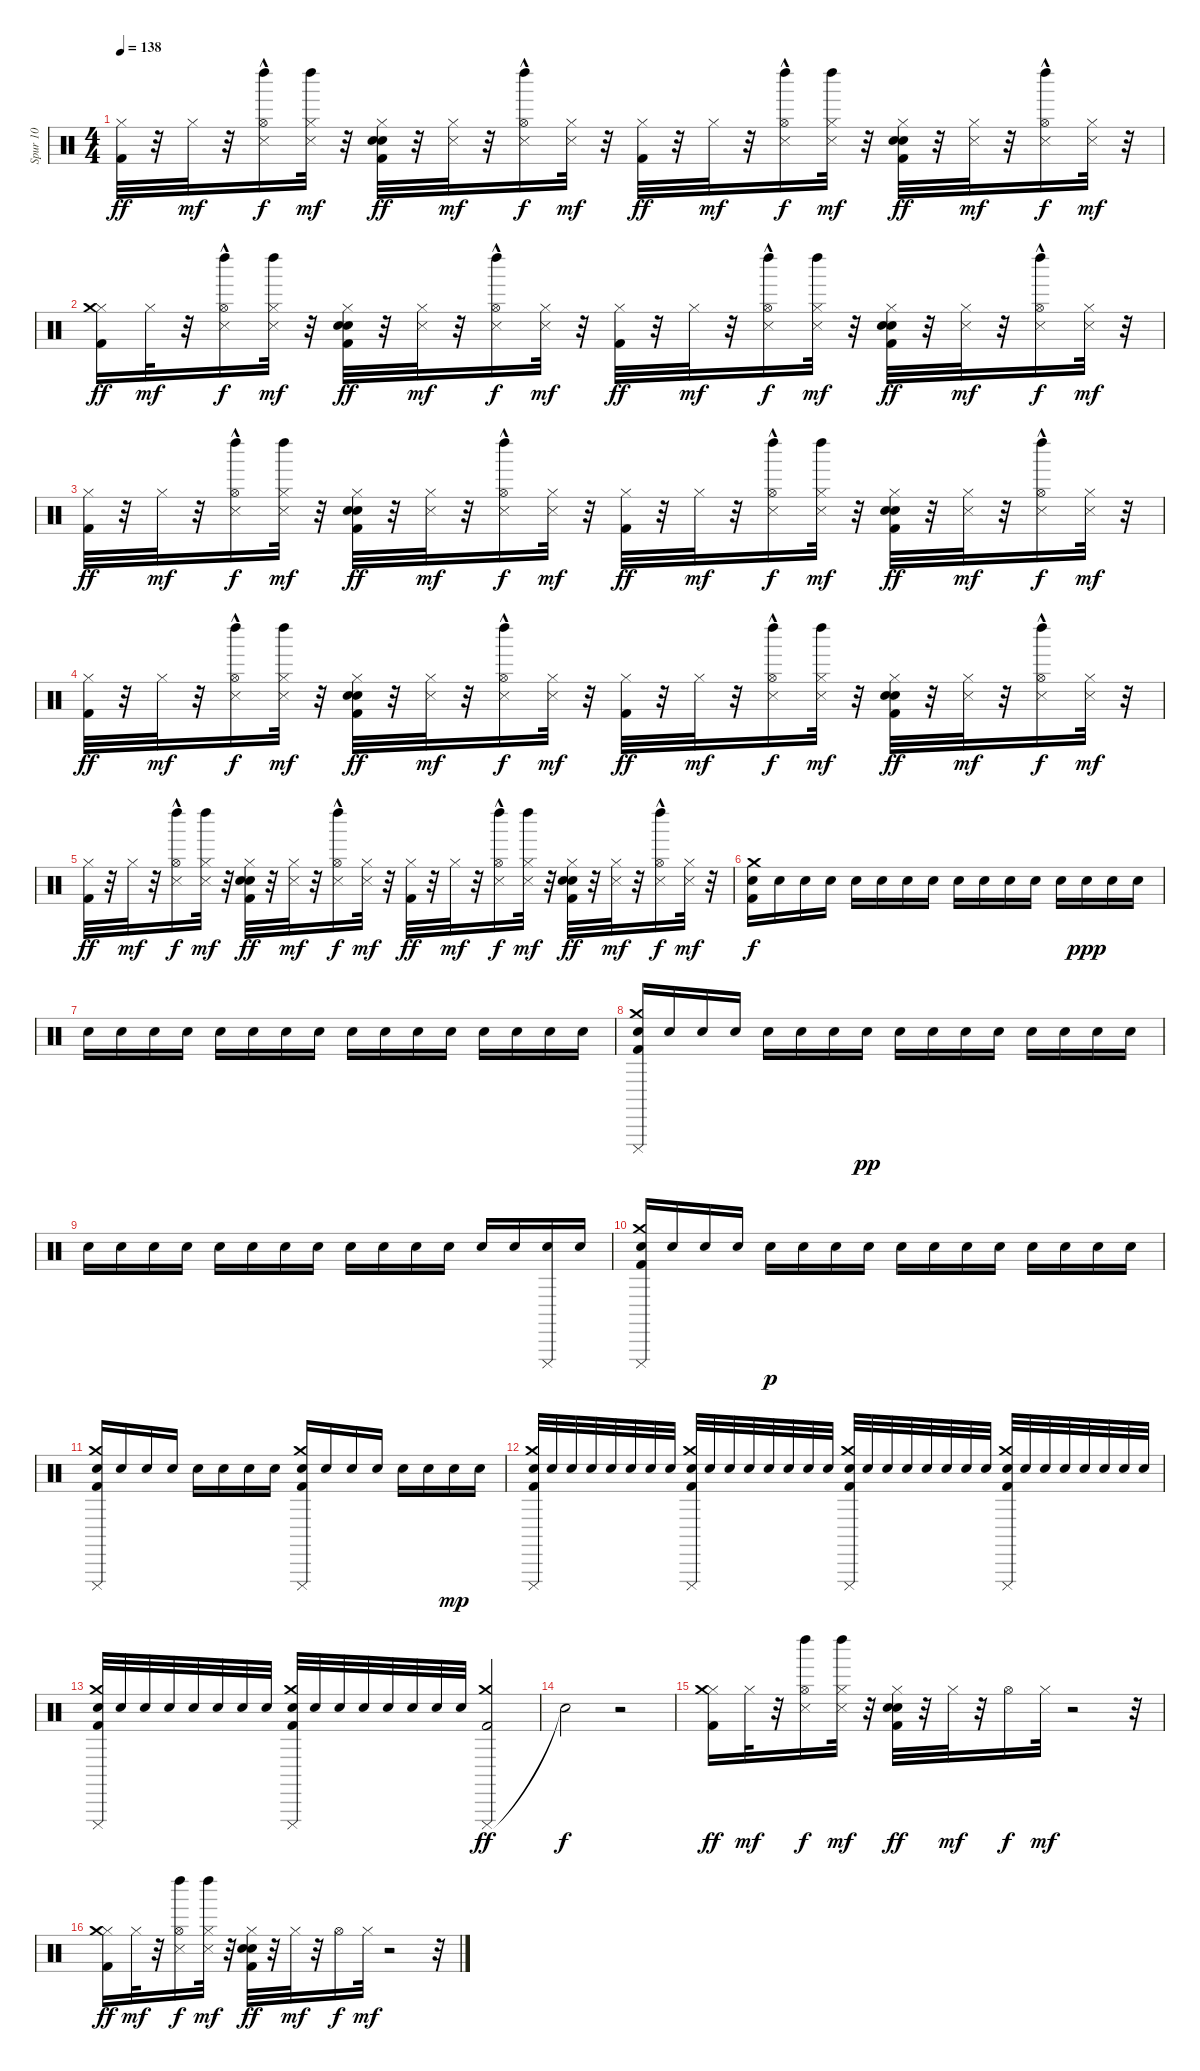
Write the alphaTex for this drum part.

\track ("Spur 10" "Spur 10") {instrument percussion}
\staff {score}
\articulation defaults
\ts (4 4)
\tempo 138
\clef neutral
\ks c
("Hi-Hat (closed)" "Kick (hit) 2").32{dy ff} r.32 "Hi-Hat (closed)".32{dy mf} r.32 ("Snare (side stick) 3" "Hi-Hat (open)"{hac} "Left Maraca (hit)").16{dy f} ("Hi-Hat (closed)" "Snare (side stick) 3" "Left Maraca (hit)").32{dy mf} r.32 ("Hand Clap (hit)" "Hi-Hat (closed)" "Kick (hit) 2" "Electric Snare (hit)").32{dy ff} r.32 ("Hi-Hat (closed)" "Snare (side stick) 3").32{dy mf} r.32 ("Snare (side stick) 3" "Hi-Hat (open)"{hac} "Left Maraca (hit)").16{dy f} ("Hi-Hat (closed)" "Snare (side stick) 3").32{dy mf} r.32 ("Hi-Hat (closed)" "Kick (hit) 2").32{dy ff} r.32 "Hi-Hat (closed)".32{dy mf} r.32 ("Snare (side stick) 3" "Hi-Hat (open)"{hac} "Left Maraca (hit)").16{dy f} ("Hi-Hat (closed)" "Snare (side stick) 3" "Left Maraca (hit)").32{dy mf} r.32 ("Hand Clap (hit)" "Hi-Hat (closed)" "Kick (hit) 2" "Electric Snare (hit)").32{dy ff} r.32 ("Hi-Hat (closed)" "Snare (side stick) 3").32{dy mf} r.32 ("Snare (side stick) 3" "Hi-Hat (open)"{hac} "Left Maraca (hit)").16{dy f} ("Hi-Hat (closed)" "Snare (side stick) 3").32{dy mf} r.32 |
("Hi-Hat (closed)" "Crash medium (hit)" "Kick (hit) 2").16{dy ff} "Hi-Hat (closed)".32{dy mf} r.32 ("Snare (side stick) 3" "Hi-Hat (open)"{hac} "Left Maraca (hit)").16{dy f} ("Hi-Hat (closed)" "Snare (side stick) 3" "Left Maraca (hit)").32{dy mf} r.32 ("Hand Clap (hit)" "Hi-Hat (closed)" "Kick (hit) 2" "Electric Snare (hit)").32{dy ff} r.32 ("Hi-Hat (closed)" "Snare (side stick) 3").32{dy mf} r.32 ("Snare (side stick) 3" "Hi-Hat (open)"{hac} "Left Maraca (hit)").16{dy f} ("Hi-Hat (closed)" "Snare (side stick) 3").32{dy mf} r.32 ("Hi-Hat (closed)" "Kick (hit) 2").32{dy ff} r.32 "Hi-Hat (closed)".32{dy mf} r.32 ("Snare (side stick) 3" "Hi-Hat (open)"{hac} "Left Maraca (hit)").16{dy f} ("Hi-Hat (closed)" "Snare (side stick) 3" "Left Maraca (hit)").32{dy mf} r.32 ("Hand Clap (hit)" "Hi-Hat (closed)" "Kick (hit) 2" "Electric Snare (hit)").32{dy ff} r.32 ("Hi-Hat (closed)" "Snare (side stick) 3").32{dy mf} r.32 ("Snare (side stick) 3" "Hi-Hat (open)"{hac} "Left Maraca (hit)").16{dy f} ("Hi-Hat (closed)" "Snare (side stick) 3").32{dy mf} r.32 |
("Hi-Hat (closed)" "Kick (hit) 2").32{dy ff} r.32 "Hi-Hat (closed)".32{dy mf} r.32 ("Snare (side stick) 3" "Hi-Hat (open)"{hac} "Left Maraca (hit)").16{dy f} ("Hi-Hat (closed)" "Snare (side stick) 3" "Left Maraca (hit)").32{dy mf} r.32 ("Hand Clap (hit)" "Hi-Hat (closed)" "Kick (hit) 2" "Electric Snare (hit)").32{dy ff} r.32 ("Hi-Hat (closed)" "Snare (side stick) 3").32{dy mf} r.32 ("Snare (side stick) 3" "Hi-Hat (open)"{hac} "Left Maraca (hit)").16{dy f} ("Hi-Hat (closed)" "Snare (side stick) 3").32{dy mf} r.32 ("Hi-Hat (closed)" "Kick (hit) 2").32{dy ff} r.32 "Hi-Hat (closed)".32{dy mf} r.32 ("Snare (side stick) 3" "Hi-Hat (open)"{hac} "Left Maraca (hit)").16{dy f} ("Hi-Hat (closed)" "Snare (side stick) 3" "Left Maraca (hit)").32{dy mf} r.32 ("Hand Clap (hit)" "Hi-Hat (closed)" "Kick (hit) 2" "Electric Snare (hit)").32{dy ff} r.32 ("Hi-Hat (closed)" "Snare (side stick) 3").32{dy mf} r.32 ("Snare (side stick) 3" "Hi-Hat (open)"{hac} "Left Maraca (hit)").16{dy f} ("Hi-Hat (closed)" "Snare (side stick) 3").32{dy mf} r.32 |
("Hi-Hat (closed)" "Kick (hit) 2").32{dy ff} r.32 "Hi-Hat (closed)".32{dy mf} r.32 ("Snare (side stick) 3" "Hi-Hat (open)"{hac} "Left Maraca (hit)").16{dy f} ("Hi-Hat (closed)" "Snare (side stick) 3" "Left Maraca (hit)").32{dy mf} r.32 ("Hand Clap (hit)" "Hi-Hat (closed)" "Kick (hit) 2" "Electric Snare (hit)").32{dy ff} r.32 ("Hi-Hat (closed)" "Snare (side stick) 3").32{dy mf} r.32 ("Snare (side stick) 3" "Hi-Hat (open)"{hac} "Left Maraca (hit)").16{dy f} ("Hi-Hat (closed)" "Snare (side stick) 3").32{dy mf} r.32 ("Hi-Hat (closed)" "Kick (hit) 2").32{dy ff} r.32 "Hi-Hat (closed)".32{dy mf} r.32 ("Snare (side stick) 3" "Hi-Hat (open)"{hac} "Left Maraca (hit)").16{dy f} ("Hi-Hat (closed)" "Snare (side stick) 3" "Left Maraca (hit)").32{dy mf} r.32 ("Hand Clap (hit)" "Hi-Hat (closed)" "Kick (hit) 2" "Electric Snare (hit)").32{dy ff} r.32 ("Hi-Hat (closed)" "Snare (side stick) 3").32{dy mf} r.32 ("Snare (side stick) 3" "Hi-Hat (open)"{hac} "Left Maraca (hit)").16{dy f} ("Hi-Hat (closed)" "Snare (side stick) 3").32{dy mf} r.32 |
("Hi-Hat (closed)" "Kick (hit) 2").32{dy ff} r.32 "Hi-Hat (closed)".32{dy mf} r.32 ("Snare (side stick) 3" "Hi-Hat (open)"{hac} "Left Maraca (hit)").16{dy f} ("Hi-Hat (closed)" "Snare (side stick) 3" "Left Maraca (hit)").32{dy mf} r.32 ("Hand Clap (hit)" "Hi-Hat (closed)" "Kick (hit) 2" "Electric Snare (hit)").32{dy ff} r.32 ("Hi-Hat (closed)" "Snare (side stick) 3").32{dy mf} r.32 ("Snare (side stick) 3" "Hi-Hat (open)"{hac} "Left Maraca (hit)").16{dy f} ("Hi-Hat (closed)" "Snare (side stick) 3").32{dy mf} r.32 ("Hi-Hat (closed)" "Kick (hit) 2").32{dy ff} r.32 "Hi-Hat (closed)".32{dy mf} r.32 ("Snare (side stick) 3" "Hi-Hat (open)"{hac} "Left Maraca (hit)").16{dy f} ("Hi-Hat (closed)" "Snare (side stick) 3" "Left Maraca (hit)").32{dy mf} r.32 ("Hand Clap (hit)" "Hi-Hat (closed)" "Kick (hit) 2" "Electric Snare (hit)").32{dy ff} r.32 ("Hi-Hat (closed)" "Snare (side stick) 3").32{dy mf} r.32 ("Snare (side stick) 3" "Hi-Hat (open)"{hac} "Left Maraca (hit)").16{dy f} ("Hi-Hat (closed)" "Snare (side stick) 3").32{dy mf} r.32 |
("Crash medium (hit)" "Kick (hit) 2" "Electric Snare (hit)").16{dy f} "Electric Snare (hit)".16 "Electric Snare (hit)".16 "Electric Snare (hit)".16 "Electric Snare (hit)".16 "Electric Snare (hit)".16 "Electric Snare (hit)".16 "Electric Snare (hit)".16 "Electric Snare (hit)".16 "Electric Snare (hit)".16 "Electric Snare (hit)".16 "Electric Snare (hit)".16 "Electric Snare (hit)".16 "Electric Snare (hit)".16{dy ppp} "Electric Snare (hit)".16 "Electric Snare (hit)".16 |
"Electric Snare (hit)".16 "Electric Snare (hit)".16 "Electric Snare (hit)".16 "Electric Snare (hit)".16 "Electric Snare (hit)".16 "Electric Snare (hit)".16 "Electric Snare (hit)".16 "Electric Snare (hit)".16 "Electric Snare (hit)".16 "Electric Snare (hit)".16 "Electric Snare (hit)".16 "Electric Snare (hit)".16 "Electric Snare (hit)".16 "Electric Snare (hit)".16 "Electric Snare (hit)".16 "Electric Snare (hit)".16 |
("Cuica (mute)" "Crash medium (hit)" "Kick (hit) 2" "Electric Snare (hit)").16 "Electric Snare (hit)".16 "Electric Snare (hit)".16 "Electric Snare (hit)".16 "Electric Snare (hit)".16 "Electric Snare (hit)".16 "Electric Snare (hit)".16 "Electric Snare (hit)".16{dy pp} "Electric Snare (hit)".16 "Electric Snare (hit)".16 "Electric Snare (hit)".16 "Electric Snare (hit)".16 "Electric Snare (hit)".16 "Electric Snare (hit)".16 "Electric Snare (hit)".16 "Electric Snare (hit)".16 |
"Electric Snare (hit)".16 "Electric Snare (hit)".16 "Electric Snare (hit)".16 "Electric Snare (hit)".16 "Electric Snare (hit)".16 "Electric Snare (hit)".16 "Electric Snare (hit)".16 "Electric Snare (hit)".16 "Electric Snare (hit)".16 "Electric Snare (hit)".16 "Electric Snare (hit)".16 "Electric Snare (hit)".16 "Electric Snare (hit)".16 "Electric Snare (hit)".16 ("Cuica (mute)" "Electric Snare (hit)").16 "Electric Snare (hit)".16 |
("Cuica (mute)" "Crash medium (hit)" "Kick (hit) 2" "Electric Snare (hit)").16 "Electric Snare (hit)".16 "Electric Snare (hit)".16 "Electric Snare (hit)".16 "Electric Snare (hit)".16{dy p} "Electric Snare (hit)".16 "Electric Snare (hit)".16 "Electric Snare (hit)".16 "Electric Snare (hit)".16 "Electric Snare (hit)".16 "Electric Snare (hit)".16 "Electric Snare (hit)".16 "Electric Snare (hit)".16 "Electric Snare (hit)".16 "Electric Snare (hit)".16 "Electric Snare (hit)".16 |
("Cuica (mute)" "Crash medium (hit)" "Kick (hit) 2" "Electric Snare (hit)").16 "Electric Snare (hit)".16 "Electric Snare (hit)".16 "Electric Snare (hit)".16 "Electric Snare (hit)".16 "Electric Snare (hit)".16 "Electric Snare (hit)".16 "Electric Snare (hit)".16 ("Cuica (mute)" "Crash medium (hit)" "Kick (hit) 2" "Electric Snare (hit)").16 "Electric Snare (hit)".16 "Electric Snare (hit)".16 "Electric Snare (hit)".16 "Electric Snare (hit)".16 "Electric Snare (hit)".16 "Electric Snare (hit)".16{dy mp} "Electric Snare (hit)".16 |
("Cuica (mute)" "Crash medium (hit)" "Kick (hit) 2" "Electric Snare (hit)").32 "Electric Snare (hit)".32 "Electric Snare (hit)".32 "Electric Snare (hit)".32 "Electric Snare (hit)".32 "Electric Snare (hit)".32 "Electric Snare (hit)".32 "Electric Snare (hit)".32 ("Cuica (mute)" "Crash medium (hit)" "Kick (hit) 2" "Electric Snare (hit)").32 "Electric Snare (hit)".32 "Electric Snare (hit)".32 "Electric Snare (hit)".32 "Electric Snare (hit)".32 "Electric Snare (hit)".32 "Electric Snare (hit)".32 "Electric Snare (hit)".32 ("Cuica (mute)" "Crash medium (hit)" "Kick (hit) 2" "Electric Snare (hit)").32 "Electric Snare (hit)".32 "Electric Snare (hit)".32 "Electric Snare (hit)".32 "Electric Snare (hit)".32 "Electric Snare (hit)".32 "Electric Snare (hit)".32 "Electric Snare (hit)".32 ("Cuica (mute)" "Crash medium (hit)" "Kick (hit) 2" "Electric Snare (hit)").32 "Electric Snare (hit)".32 "Electric Snare (hit)".32 "Electric Snare (hit)".32 "Electric Snare (hit)".32 "Electric Snare (hit)".32 "Electric Snare (hit)".32 "Electric Snare (hit)".32 |
("Cuica (mute)" "Crash medium (hit)" "Kick (hit) 2" "Electric Snare (hit)").32 "Electric Snare (hit)".32 "Electric Snare (hit)".32 "Electric Snare (hit)".32 "Electric Snare (hit)".32 "Electric Snare (hit)".32 "Electric Snare (hit)".32 "Electric Snare (hit)".32 ("Cuica (mute)" "Crash medium (hit)" "Kick (hit) 2" "Electric Snare (hit)").32 "Electric Snare (hit)".32 "Electric Snare (hit)".32 "Electric Snare (hit)".32 "Electric Snare (hit)".32 "Electric Snare (hit)".32 "Electric Snare (hit)".32 "Electric Snare (hit)".32 ("Cuica (mute)" "Crash medium (hit)" "Kick (hit) 2").2{dy ff} |
"Snare (hit)"{t}.2{dy f} r.2 |
("Hi-Hat (closed)" "Crash medium (hit)" "Kick (hit) 2").16{dy ff} "Hi-Hat (closed)".32{dy mf} r.32 ("Snare (side stick) 3" "Hi-Hat (open)" "Left Maraca (hit)").16{dy f} ("Hi-Hat (closed)" "Snare (side stick) 3" "Left Maraca (hit)").32{dy mf} r.32 ("Hand Clap (hit)" "Hi-Hat (closed)" "Kick (hit) 2" "Electric Snare (hit)").32{dy ff} r.32 "Hi-Hat (closed)".32{dy mf} r.32 "Hi-Hat (open)".16{dy f} "Hi-Hat (closed)".32{dy mf} r.2 r.32 |
("Hi-Hat (closed)" "Crash medium (hit)" "Kick (hit) 2").16{dy ff} "Hi-Hat (closed)".32{dy mf} r.32 ("Snare (side stick) 3" "Hi-Hat (open)" "Left Maraca (hit)").16{dy f} ("Hi-Hat (closed)" "Snare (side stick) 3" "Left Maraca (hit)").32{dy mf} r.32 ("Hand Clap (hit)" "Hi-Hat (closed)" "Kick (hit) 2" "Electric Snare (hit)").32{dy ff} r.32 "Hi-Hat (closed)".32{dy mf} r.32 "Hi-Hat (open)".16{dy f} "Hi-Hat (closed)".32{dy mf} r.2 r.32
